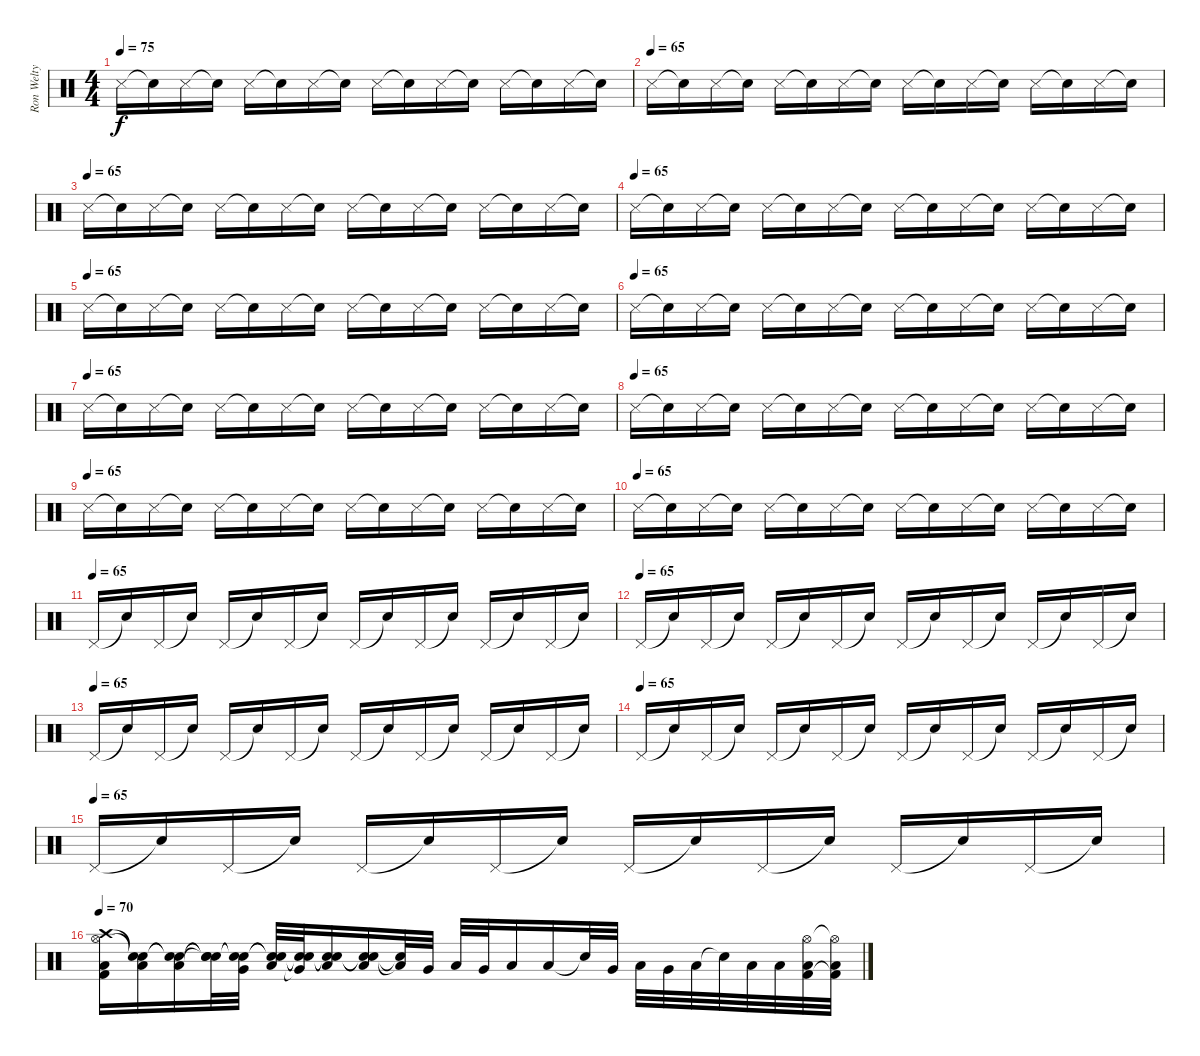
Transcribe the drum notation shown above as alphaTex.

\track ("Ron Welty" "Ron Welty") {instrument percussion}
\staff {score}
\articulation defaults
\ts (4 4)
\tempo 75
\tempo 65
\tempo 75
\clef neutral
\ks c "Snare (side stick) 3".16{dy f volume 7} "Snare (hit)"{t}.16 "Snare (side stick) 3".16 "Snare (hit)"{t}.16 "Snare (side stick) 3".16 "Snare (hit)"{t}.16 "Snare (side stick) 3".16 "Snare (hit)"{t}.16 "Snare (side stick) 3".16 "Snare (hit)"{t}.16 "Snare (side stick) 3".16 "Snare (hit)"{t}.16 "Snare (side stick) 3".16 "Snare (hit)"{t}.16 "Snare (side stick) 3".16 "Snare (hit)"{t}.16
|
\tempo (65)
"Snare (side stick) 3".16{volume 7} "Snare (hit)"{t}.16 "Snare (side stick) 3".16 "Snare (hit)"{t}.16 "Snare (side stick) 3".16 "Snare (hit)"{t}.16 "Snare (side stick) 3".16 "Snare (hit)"{t}.16 "Snare (side stick) 3".16 "Snare (hit)"{t}.16 "Snare (side stick) 3".16 "Snare (hit)"{t}.16 "Snare (side stick) 3".16 "Snare (hit)"{t}.16 "Snare (side stick) 3".16 "Snare (hit)"{t}.16 |
\tempo (65)
"Snare (side stick) 3".16{volume 7} "Snare (hit)"{t}.16 "Snare (side stick) 3".16 "Snare (hit)"{t}.16 "Snare (side stick) 3".16 "Snare (hit)"{t}.16 "Snare (side stick) 3".16 "Snare (hit)"{t}.16 "Snare (side stick) 3".16 "Snare (hit)"{t}.16 "Snare (side stick) 3".16 "Snare (hit)"{t}.16 "Snare (side stick) 3".16 "Snare (hit)"{t}.16 "Snare (side stick) 3".16 "Snare (hit)"{t}.16 |
\tempo (65)
"Snare (side stick) 3".16{volume 7} "Snare (hit)"{t}.16 "Snare (side stick) 3".16 "Snare (hit)"{t}.16 "Snare (side stick) 3".16 "Snare (hit)"{t}.16 "Snare (side stick) 3".16 "Snare (hit)"{t}.16 "Snare (side stick) 3".16 "Snare (hit)"{t}.16 "Snare (side stick) 3".16 "Snare (hit)"{t}.16 "Snare (side stick) 3".16 "Snare (hit)"{t}.16 "Snare (side stick) 3".16 "Snare (hit)"{t}.16 |
\tempo (65)
"Snare (side stick) 3".16{volume 7} "Snare (hit)"{t}.16 "Snare (side stick) 3".16 "Snare (hit)"{t}.16 "Snare (side stick) 3".16 "Snare (hit)"{t}.16 "Snare (side stick) 3".16 "Snare (hit)"{t}.16 "Snare (side stick) 3".16 "Snare (hit)"{t}.16 "Snare (side stick) 3".16 "Snare (hit)"{t}.16 "Snare (side stick) 3".16 "Snare (hit)"{t}.16 "Snare (side stick) 3".16 "Snare (hit)"{t}.16 |
\tempo (65)
"Snare (side stick) 3".16{volume 7} "Snare (hit)"{t}.16 "Snare (side stick) 3".16 "Snare (hit)"{t}.16 "Snare (side stick) 3".16 "Snare (hit)"{t}.16 "Snare (side stick) 3".16 "Snare (hit)"{t}.16 "Snare (side stick) 3".16 "Snare (hit)"{t}.16 "Snare (side stick) 3".16 "Snare (hit)"{t}.16 "Snare (side stick) 3".16 "Snare (hit)"{t}.16 "Snare (side stick) 3".16 "Snare (hit)"{t}.16 |
\tempo (65)
"Snare (side stick) 3".16{volume 7} "Snare (hit)"{t}.16 "Snare (side stick) 3".16 "Snare (hit)"{t}.16 "Snare (side stick) 3".16 "Snare (hit)"{t}.16 "Snare (side stick) 3".16 "Snare (hit)"{t}.16 "Snare (side stick) 3".16 "Snare (hit)"{t}.16 "Snare (side stick) 3".16 "Snare (hit)"{t}.16 "Snare (side stick) 3".16 "Snare (hit)"{t}.16 "Snare (side stick) 3".16 "Snare (hit)"{t}.16 |
\tempo (65)
"Snare (side stick) 3".16{volume 7} "Snare (hit)"{t}.16 "Snare (side stick) 3".16 "Snare (hit)"{t}.16 "Snare (side stick) 3".16 "Snare (hit)"{t}.16 "Snare (side stick) 3".16 "Snare (hit)"{t}.16 "Snare (side stick) 3".16 "Snare (hit)"{t}.16 "Snare (side stick) 3".16 "Snare (hit)"{t}.16 "Snare (side stick) 3".16 "Snare (hit)"{t}.16 "Snare (side stick) 3".16 "Snare (hit)"{t}.16 |
\tempo (65)
"Snare (side stick) 3".16{volume 7} "Snare (hit)"{t}.16 "Snare (side stick) 3".16 "Snare (hit)"{t}.16 "Snare (side stick) 3".16 "Snare (hit)"{t}.16 "Snare (side stick) 3".16 "Snare (hit)"{t}.16 "Snare (side stick) 3".16 "Snare (hit)"{t}.16 "Snare (side stick) 3".16 "Snare (hit)"{t}.16 "Snare (side stick) 3".16 "Snare (hit)"{t}.16 "Snare (side stick) 3".16 "Snare (hit)"{t}.16 |
\tempo (65)
"Snare (side stick) 3".16{volume 7} "Snare (hit)"{t}.16 "Snare (side stick) 3".16 "Snare (hit)"{t}.16 "Snare (side stick) 3".16 "Snare (hit)"{t}.16 "Snare (side stick) 3".16 "Snare (hit)"{t}.16 "Snare (side stick) 3".16 "Snare (hit)"{t}.16 "Snare (side stick) 3".16 "Snare (hit)"{t}.16 "Snare (side stick) 3".16 "Snare (hit)"{t}.16 "Snare (side stick) 3".16 "Snare (hit)"{t}.16 |
\tempo (65)
"Pedal Hi-Hat (hit)".16{volume 14} "Snare (hit)"{t}.16 "Pedal Hi-Hat (hit)".16 "Snare (hit)"{t}.16 "Pedal Hi-Hat (hit)".16 "Snare (hit)"{t}.16 "Pedal Hi-Hat (hit)".16 "Snare (hit)"{t}.16 "Pedal Hi-Hat (hit)".16 "Snare (hit)"{t}.16 "Pedal Hi-Hat (hit)".16 "Snare (hit)"{t}.16 "Pedal Hi-Hat (hit)".16 "Snare (hit)"{t}.16 "Pedal Hi-Hat (hit)".16 "Snare (hit)"{t}.16 |
\tempo (65)
"Pedal Hi-Hat (hit)".16 "Snare (hit)"{t}.16 "Pedal Hi-Hat (hit)".16 "Snare (hit)"{t}.16 "Pedal Hi-Hat (hit)".16 "Snare (hit)"{t}.16 "Pedal Hi-Hat (hit)".16 "Snare (hit)"{t}.16 "Pedal Hi-Hat (hit)".16 "Snare (hit)"{t}.16 "Pedal Hi-Hat (hit)".16 "Snare (hit)"{t}.16 "Pedal Hi-Hat (hit)".16 "Snare (hit)"{t}.16 "Pedal Hi-Hat (hit)".16 "Snare (hit)"{t}.16 |
\tempo (65)
"Pedal Hi-Hat (hit)".16 "Snare (hit)"{t}.16 "Pedal Hi-Hat (hit)".16 "Snare (hit)"{t}.16 "Pedal Hi-Hat (hit)".16 "Snare (hit)"{t}.16 "Pedal Hi-Hat (hit)".16 "Snare (hit)"{t}.16 "Pedal Hi-Hat (hit)".16 "Snare (hit)"{t}.16 "Pedal Hi-Hat (hit)".16 "Snare (hit)"{t}.16 "Pedal Hi-Hat (hit)".16 "Snare (hit)"{t}.16 "Pedal Hi-Hat (hit)".16 "Snare (hit)"{t}.16 |
\tempo (65)
"Pedal Hi-Hat (hit)".16 "Snare (hit)"{t}.16 "Pedal Hi-Hat (hit)".16 "Snare (hit)"{t}.16 "Pedal Hi-Hat (hit)".16 "Snare (hit)"{t}.16 "Pedal Hi-Hat (hit)".16 "Snare (hit)"{t}.16 "Pedal Hi-Hat (hit)".16 "Snare (hit)"{t}.16 "Pedal Hi-Hat (hit)".16 "Snare (hit)"{t}.16 "Pedal Hi-Hat (hit)".16 "Snare (hit)"{t}.16 "Pedal Hi-Hat (hit)".16 "Snare (hit)"{t}.16 |
\tempo (65)
"Pedal Hi-Hat (hit)".16 "Snare (hit)"{t}.16 "Pedal Hi-Hat (hit)".16 "Snare (hit)"{t}.16 "Pedal Hi-Hat (hit)".16 "Snare (hit)"{t}.16 "Pedal Hi-Hat (hit)".16 "Snare (hit)"{t}.16 "Pedal Hi-Hat (hit)".16 "Snare (hit)"{t}.16 "Pedal Hi-Hat (hit)".16 "Snare (hit)"{t}.16 "Pedal Hi-Hat (hit)".16 "Snare (hit)"{t}.16 "Pedal Hi-Hat (hit)".16 "Snare (hit)"{t}.16 |
\tempo 70
("Crash high (hit)" "Hi-Hat (open)" "Low Tom (hit)" "Kick (hit) 2").16{volume 8} ("Snare (hit)"{t} "Snare (hit)"{t} "Low Tom (hit)").16 ("Snare (hit)"{t} "Snare (hit)"{t} "Low Tom (hit)").16 ("Snare (hit)"{t} "Snare (hit)"{t} "Snare (hit)"{t}).32 ("Snare (hit)"{t} "Snare (hit)"{t} "Very Low Tom (hit)").32 ("Snare (hit)"{t} "Snare (hit)"{t} "Low Tom (hit)").32 ("Snare (hit)"{t} "Snare (hit)"{t} "Very Low Tom (hit)"{t}).32 ("Snare (hit)"{t} "Snare (hit)"{t} "Low Tom (hit)").16 ("Snare (hit)"{t} "Snare (hit)"{t} "Low Tom (hit)").16 ("Snare (hit)"{t} "Low Tom (hit)"{t}).32 "Very Low Tom (hit)".32 "Low Tom (hit)".32 "Very Low Tom (hit)".32 "Low Tom (hit)".16 "Low Tom (hit)".16 "Snare (hit)"{t}.32 "Very Low Tom (hit)".32 "Low Tom (hit)".32 "Very Low Tom (hit)".32 "Low Tom (hit)".32 "Snare (hit)"{t}.32 "Low Tom (hit)".32 "Low Tom (hit)".32 ("Hi-Hat (open)" "Low Tom (hit)" "Kick (hit) 2").32 ("Hi-Hat (open)"{t} "Low Tom (hit)" "Kick (hit) 2"{t}).32
